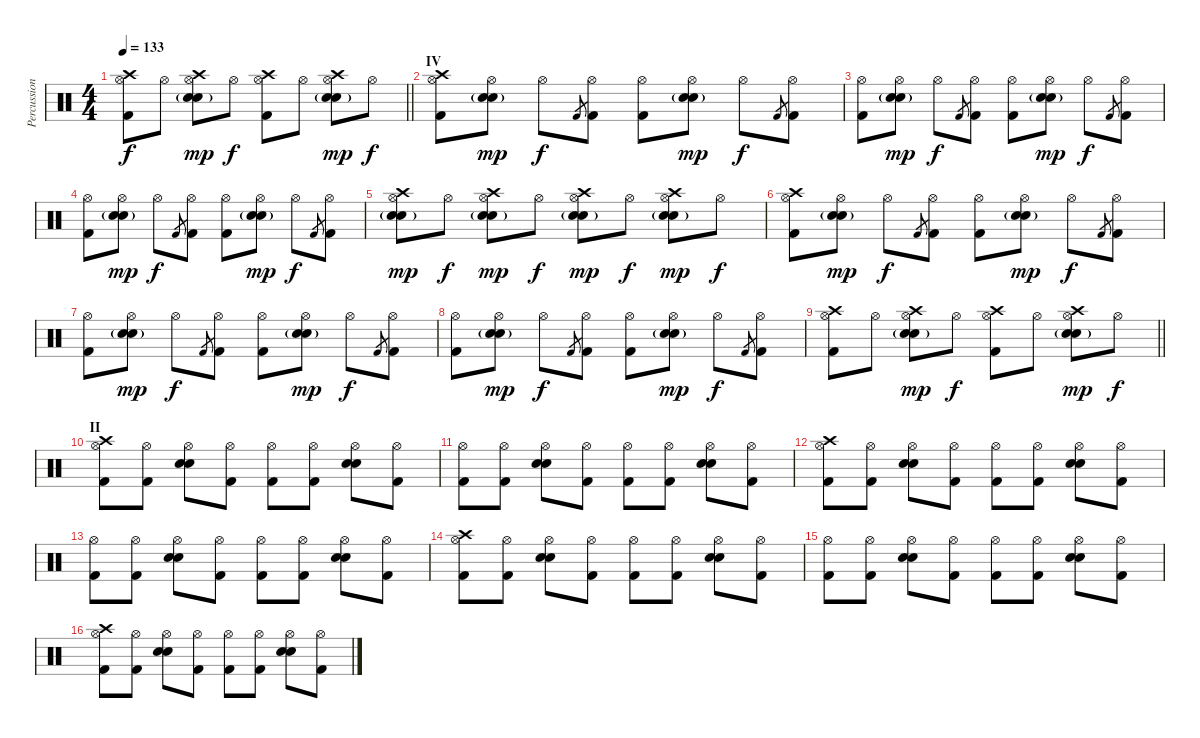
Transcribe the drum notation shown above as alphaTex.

\track ("Percussion" "Percussion") {instrument percussion}
\staff {score}
\articulation defaults
\ts (4 4)
\tempo 133
\clef neutral
\barLineRight lightlight
\ks c
("Crash high (hit)" "Kick (hit) 2" "Hi-Hat (open)").8{dy f} "Hi-Hat (open)".8 ("Crash high (hit)" "Electric Snare (hit)" "Snare (hit) 2"{g} "Hi-Hat (open)").8{dy mp} "Hi-Hat (open)".8{dy f} ("Crash high (hit)" "Kick (hit) 2" "Hi-Hat (open)").8 "Hi-Hat (open)".8 ("Crash high (hit)" "Electric Snare (hit)" "Snare (hit) 2"{g} "Hi-Hat (open)").8{dy mp} "Hi-Hat (open)".8{dy f} |
\section ("" "IV")
("Crash high (hit)" "Kick (hit) 2" "Hi-Hat (open)").8 ("Electric Snare (hit)" "Snare (hit) 2"{g} "Hi-Hat (open)").8{dy mp} "Hi-Hat (open)".8{dy f} "Kick (hit) 2".8{gr} ("Kick (hit) 2" "Hi-Hat (open)").8 ("Kick (hit) 2" "Hi-Hat (open)").8 ("Electric Snare (hit)" "Snare (hit) 2"{g} "Hi-Hat (open)").8{dy mp} "Hi-Hat (open)".8{dy f} "Kick (hit) 2".8{gr} ("Kick (hit) 2" "Hi-Hat (open)").8 |
("Kick (hit) 2" "Hi-Hat (open)").8 ("Electric Snare (hit)" "Snare (hit) 2"{g} "Hi-Hat (open)").8{dy mp} "Hi-Hat (open)".8{dy f} "Kick (hit) 2".8{gr} ("Kick (hit) 2" "Hi-Hat (open)").8 ("Kick (hit) 2" "Hi-Hat (open)").8 ("Electric Snare (hit)" "Snare (hit) 2"{g} "Hi-Hat (open)").8{dy mp} "Hi-Hat (open)".8{dy f} "Kick (hit) 2".8{gr} ("Kick (hit) 2" "Hi-Hat (open)").8 |
("Kick (hit) 2" "Hi-Hat (open)").8 ("Electric Snare (hit)" "Snare (hit) 2"{g} "Hi-Hat (open)").8{dy mp} "Hi-Hat (open)".8{dy f} "Kick (hit) 2".8{gr} ("Kick (hit) 2" "Hi-Hat (open)").8 ("Kick (hit) 2" "Hi-Hat (open)").8 ("Electric Snare (hit)" "Snare (hit) 2"{g} "Hi-Hat (open)").8{dy mp} "Hi-Hat (open)".8{dy f} "Kick (hit) 2".8{gr} ("Kick (hit) 2" "Hi-Hat (open)").8 |
("Crash high (hit)" "Electric Snare (hit)" "Snare (hit) 2"{g} "Hi-Hat (open)").8{dy mp} "Hi-Hat (open)".8{dy f} ("Crash high (hit)" "Electric Snare (hit)" "Snare (hit) 2"{g} "Hi-Hat (open)").8{dy mp} "Hi-Hat (open)".8{dy f} ("Crash high (hit)" "Electric Snare (hit)" "Snare (hit) 2"{g} "Hi-Hat (open)").8{dy mp} "Hi-Hat (open)".8{dy f} ("Crash high (hit)" "Electric Snare (hit)" "Snare (hit) 2"{g} "Hi-Hat (open)").8{dy mp} "Hi-Hat (open)".8{dy f} |
("Crash high (hit)" "Kick (hit) 2" "Hi-Hat (open)").8 ("Electric Snare (hit)" "Snare (hit) 2"{g} "Hi-Hat (open)").8{dy mp} "Hi-Hat (open)".8{dy f} "Kick (hit) 2".8{gr} ("Kick (hit) 2" "Hi-Hat (open)").8 ("Kick (hit) 2" "Hi-Hat (open)").8 ("Electric Snare (hit)" "Snare (hit) 2"{g} "Hi-Hat (open)").8{dy mp} "Hi-Hat (open)".8{dy f} "Kick (hit) 2".8{gr} ("Kick (hit) 2" "Hi-Hat (open)").8 |
("Kick (hit) 2" "Hi-Hat (open)").8 ("Electric Snare (hit)" "Snare (hit) 2"{g} "Hi-Hat (open)").8{dy mp} "Hi-Hat (open)".8{dy f} "Kick (hit) 2".8{gr} ("Kick (hit) 2" "Hi-Hat (open)").8 ("Kick (hit) 2" "Hi-Hat (open)").8 ("Electric Snare (hit)" "Snare (hit) 2"{g} "Hi-Hat (open)").8{dy mp} "Hi-Hat (open)".8{dy f} "Kick (hit) 2".8{gr} ("Kick (hit) 2" "Hi-Hat (open)").8 |
("Kick (hit) 2" "Hi-Hat (open)").8 ("Electric Snare (hit)" "Snare (hit) 2"{g} "Hi-Hat (open)").8{dy mp} "Hi-Hat (open)".8{dy f} "Kick (hit) 2".8{gr} ("Kick (hit) 2" "Hi-Hat (open)").8 ("Kick (hit) 2" "Hi-Hat (open)").8 ("Electric Snare (hit)" "Snare (hit) 2"{g} "Hi-Hat (open)").8{dy mp} "Hi-Hat (open)".8{dy f} "Kick (hit) 2".8{gr} ("Kick (hit) 2" "Hi-Hat (open)").8 |
\barLineRight lightlight
("Crash high (hit)" "Kick (hit) 2" "Hi-Hat (open)").8 "Hi-Hat (open)".8 ("Crash high (hit)" "Electric Snare (hit)" "Snare (hit) 2"{g} "Hi-Hat (open)").8{dy mp} "Hi-Hat (open)".8{dy f} ("Crash high (hit)" "Kick (hit) 2" "Hi-Hat (open)").8 "Hi-Hat (open)".8 ("Crash high (hit)" "Electric Snare (hit)" "Snare (hit) 2"{g} "Hi-Hat (open)").8{dy mp} "Hi-Hat (open)".8{dy f} |
\section ("" "II")
("Crash high (hit)" "Kick (hit) 2" "Hi-Hat (open)").8 ("Kick (hit) 2" "Hi-Hat (open)").8 ("Electric Snare (hit)" "Snare (hit) 2" "Hi-Hat (open)").8 ("Kick (hit) 2" "Hi-Hat (open)").8 ("Kick (hit) 2" "Hi-Hat (open)").8 ("Kick (hit) 2" "Hi-Hat (open)").8 ("Electric Snare (hit)" "Snare (hit) 2" "Hi-Hat (open)").8 ("Kick (hit) 2" "Hi-Hat (open)").8 |
("Kick (hit) 2" "Hi-Hat (open)").8 ("Kick (hit) 2" "Hi-Hat (open)").8 ("Electric Snare (hit)" "Snare (hit) 2" "Hi-Hat (open)").8 ("Kick (hit) 2" "Hi-Hat (open)").8 ("Kick (hit) 2" "Hi-Hat (open)").8 ("Kick (hit) 2" "Hi-Hat (open)").8 ("Electric Snare (hit)" "Snare (hit) 2" "Hi-Hat (open)").8 ("Kick (hit) 2" "Hi-Hat (open)").8 |
("Crash high (hit)" "Kick (hit) 2" "Hi-Hat (open)").8 ("Kick (hit) 2" "Hi-Hat (open)").8 ("Electric Snare (hit)" "Snare (hit) 2" "Hi-Hat (open)").8 ("Kick (hit) 2" "Hi-Hat (open)").8 ("Kick (hit) 2" "Hi-Hat (open)").8 ("Kick (hit) 2" "Hi-Hat (open)").8 ("Electric Snare (hit)" "Snare (hit) 2" "Hi-Hat (open)").8 ("Kick (hit) 2" "Hi-Hat (open)").8 |
("Kick (hit) 2" "Hi-Hat (open)").8 ("Kick (hit) 2" "Hi-Hat (open)").8 ("Electric Snare (hit)" "Snare (hit) 2" "Hi-Hat (open)").8 ("Kick (hit) 2" "Hi-Hat (open)").8 ("Kick (hit) 2" "Hi-Hat (open)").8 ("Kick (hit) 2" "Hi-Hat (open)").8 ("Electric Snare (hit)" "Snare (hit) 2" "Hi-Hat (open)").8 ("Kick (hit) 2" "Hi-Hat (open)").8 |
("Crash high (hit)" "Kick (hit) 2" "Hi-Hat (open)").8 ("Kick (hit) 2" "Hi-Hat (open)").8 ("Electric Snare (hit)" "Snare (hit) 2" "Hi-Hat (open)").8 ("Kick (hit) 2" "Hi-Hat (open)").8 ("Kick (hit) 2" "Hi-Hat (open)").8 ("Kick (hit) 2" "Hi-Hat (open)").8 ("Electric Snare (hit)" "Snare (hit) 2" "Hi-Hat (open)").8 ("Kick (hit) 2" "Hi-Hat (open)").8 |
("Kick (hit) 2" "Hi-Hat (open)").8 ("Kick (hit) 2" "Hi-Hat (open)").8 ("Electric Snare (hit)" "Snare (hit) 2" "Hi-Hat (open)").8 ("Kick (hit) 2" "Hi-Hat (open)").8 ("Kick (hit) 2" "Hi-Hat (open)").8 ("Kick (hit) 2" "Hi-Hat (open)").8 ("Electric Snare (hit)" "Snare (hit) 2" "Hi-Hat (open)").8 ("Kick (hit) 2" "Hi-Hat (open)").8 |
("Crash high (hit)" "Kick (hit) 2" "Hi-Hat (open)").8 ("Kick (hit) 2" "Hi-Hat (open)").8 ("Electric Snare (hit)" "Snare (hit) 2" "Hi-Hat (open)").8 ("Kick (hit) 2" "Hi-Hat (open)").8 ("Kick (hit) 2" "Hi-Hat (open)").8 ("Kick (hit) 2" "Hi-Hat (open)").8 ("Electric Snare (hit)" "Snare (hit) 2" "Hi-Hat (open)").8 ("Kick (hit) 2" "Hi-Hat (open)").8
